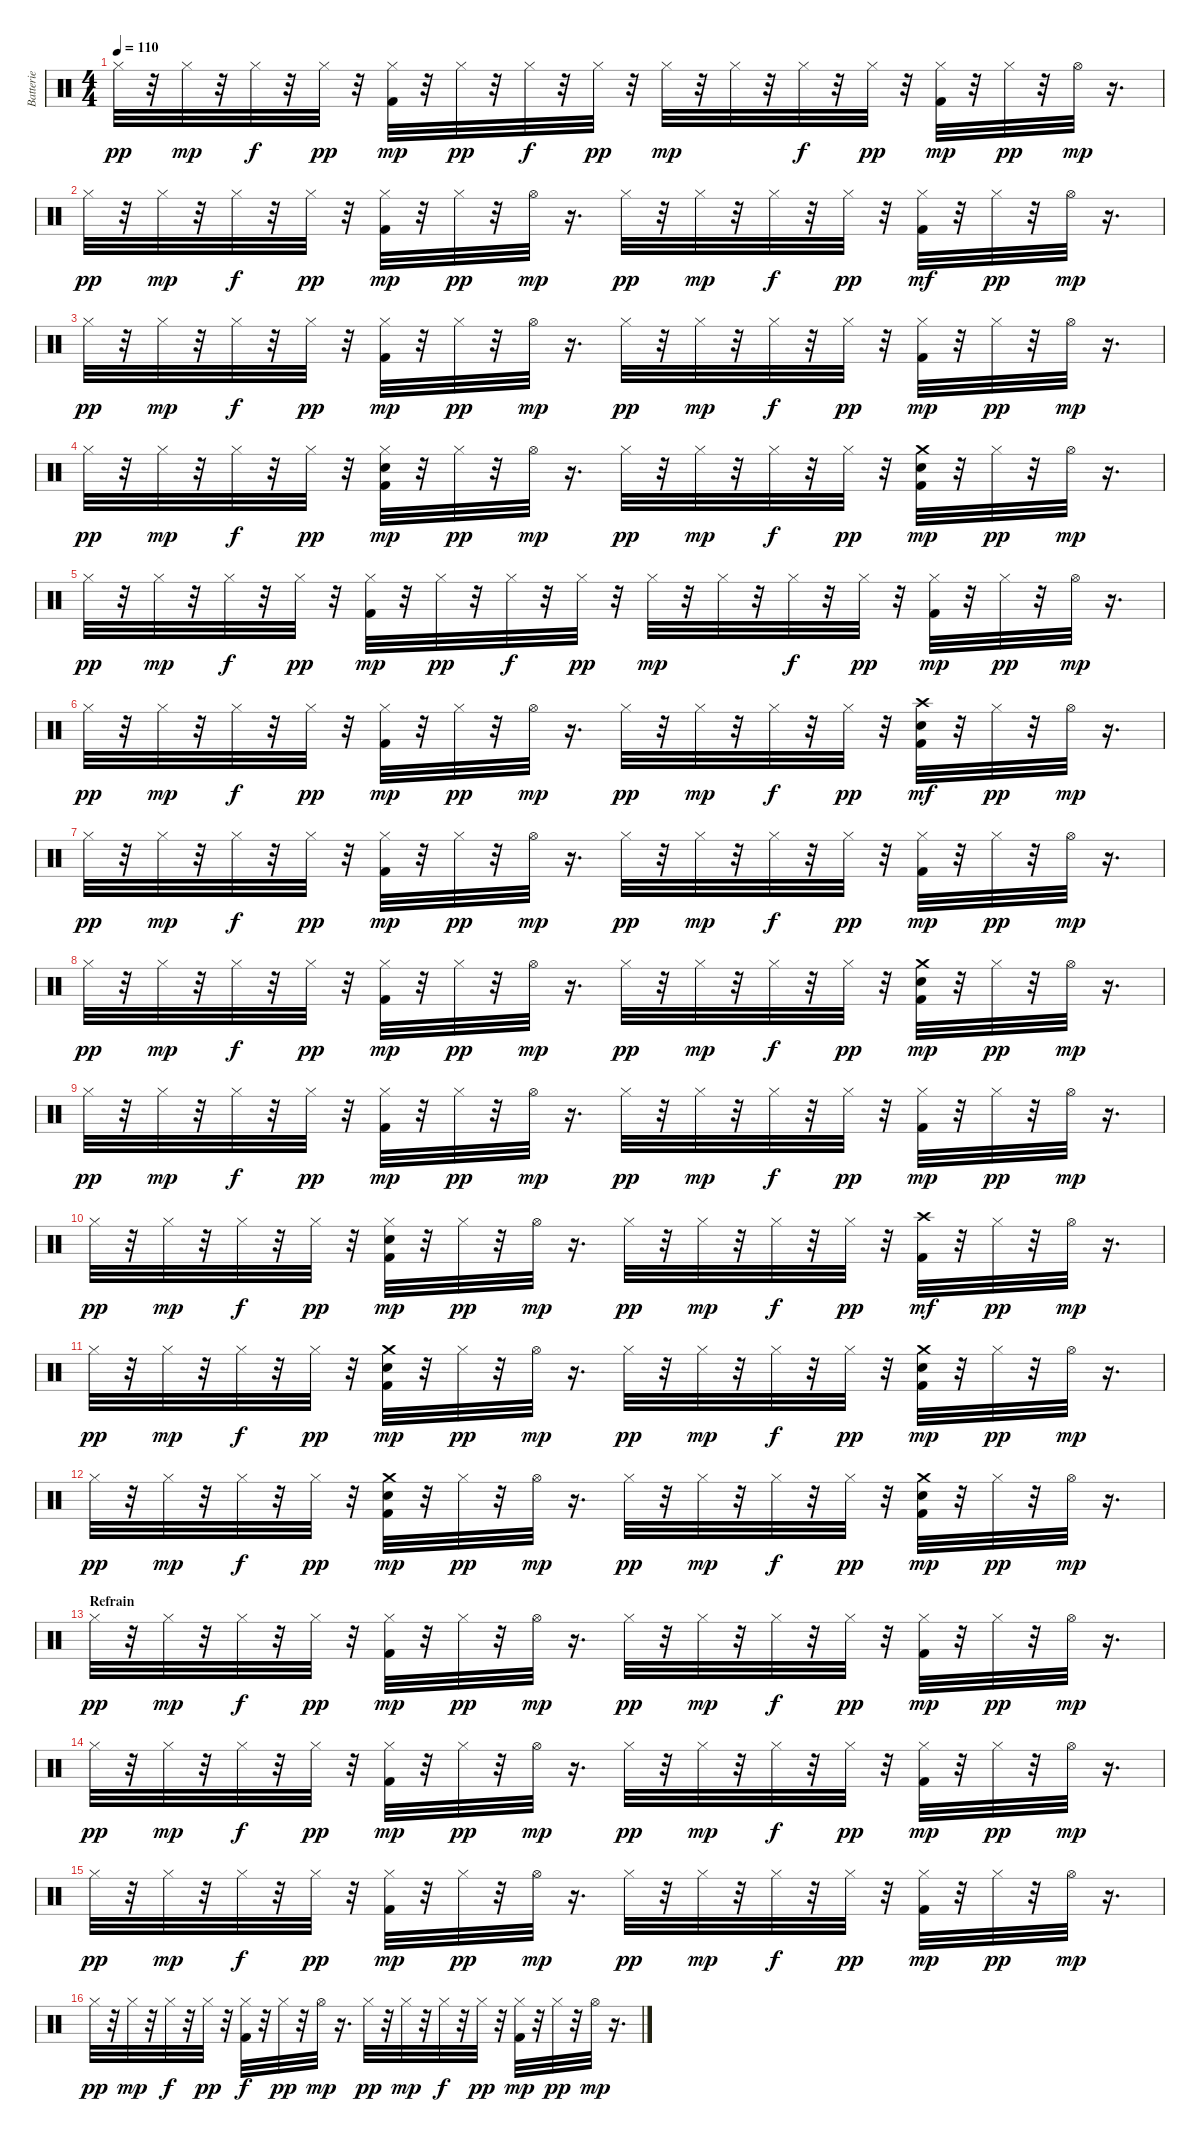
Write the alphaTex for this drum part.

\track ("Batterie" "Batterie") {instrument percussion}
\staff {score}
\articulation defaults
\ts (4 4)
\tempo 110
\clef neutral
\ks c "Hi-Hat (closed)".32{dy pp}
r.32 "Hi-Hat (closed)".32{dy mp} r.32 "Hi-Hat (closed)".32{dy f} r.32 "Hi-Hat (closed)".32{dy pp} r.32 ("Kick (hit) 2" "Hi-Hat (closed)").32{dy mp} r.32 "Hi-Hat (closed)".32{dy pp} r.32 "Hi-Hat (closed)".32{dy f} r.32 "Hi-Hat (closed)".32{dy pp} r.32 "Hi-Hat (closed)".32{dy mp} r.32 "Hi-Hat (closed)".32 r.32 "Hi-Hat (closed)".32{dy f} r.32 "Hi-Hat (closed)".32{dy pp} r.32 ("Kick (hit) 2" "Hi-Hat (closed)").32{dy mp} r.32 "Hi-Hat (closed)".32{dy pp} r.32 "Hi-Hat (open)".32{dy mp} r.16{d} |
"Hi-Hat (closed)".32{dy pp} r.32 "Hi-Hat (closed)".32{dy mp} r.32 "Hi-Hat (closed)".32{dy f} r.32 "Hi-Hat (closed)".32{dy pp} r.32 ("Kick (hit) 2" "Hi-Hat (closed)").32{dy mp} r.32 "Hi-Hat (closed)".32{dy pp} r.32 "Hi-Hat (open)".32{dy mp} r.16{d} "Hi-Hat (closed)".32{dy pp} r.32 "Hi-Hat (closed)".32{dy mp} r.32 "Hi-Hat (closed)".32{dy f} r.32 "Hi-Hat (closed)".32{dy pp} r.32 ("Kick (hit) 2" "Hi-Hat (closed)").32{dy mf} r.32 "Hi-Hat (closed)".32{dy pp} r.32 "Hi-Hat (open)".32{dy mp} r.16{d} |
"Hi-Hat (closed)".32{dy pp} r.32 "Hi-Hat (closed)".32{dy mp} r.32 "Hi-Hat (closed)".32{dy f} r.32 "Hi-Hat (closed)".32{dy pp} r.32 ("Kick (hit) 2" "Hi-Hat (closed)").32{dy mp} r.32 "Hi-Hat (closed)".32{dy pp} r.32 "Hi-Hat (open)".32{dy mp} r.16{d} "Hi-Hat (closed)".32{dy pp} r.32 "Hi-Hat (closed)".32{dy mp} r.32 "Hi-Hat (closed)".32{dy f} r.32 "Hi-Hat (closed)".32{dy pp} r.32 ("Kick (hit) 2" "Hi-Hat (closed)").32{dy mp} r.32 "Hi-Hat (closed)".32{dy pp} r.32 "Hi-Hat (open)".32{dy mp} r.16{d} |
"Hi-Hat (closed)".32{dy pp} r.32 "Hi-Hat (closed)".32{dy mp} r.32 "Hi-Hat (closed)".32{dy f} r.32 "Hi-Hat (closed)".32{dy pp} r.32 ("Kick (hit) 2" "Electric Snare (hit)" "Hi-Hat (closed)").32{dy mp} r.32 "Hi-Hat (closed)".32{dy pp} r.32 "Hi-Hat (open)".32{dy mp} r.16{d} "Hi-Hat (closed)".32{dy pp} r.32 "Hi-Hat (closed)".32{dy mp} r.32 "Hi-Hat (closed)".32{dy f} r.32 "Hi-Hat (closed)".32{dy pp} r.32 ("Kick (hit) 2" "Electric Snare (hit)" "Crash medium (hit)").32{dy mp} r.32 "Hi-Hat (closed)".32{dy pp} r.32 "Hi-Hat (open)".32{dy mp} r.16{d} |
"Hi-Hat (closed)".32{dy pp} r.32 "Hi-Hat (closed)".32{dy mp} r.32 "Hi-Hat (closed)".32{dy f} r.32 "Hi-Hat (closed)".32{dy pp} r.32 ("Kick (hit) 2" "Hi-Hat (closed)").32{dy mp} r.32 "Hi-Hat (closed)".32{dy pp} r.32 "Hi-Hat (closed)".32{dy f} r.32 "Hi-Hat (closed)".32{dy pp} r.32 "Hi-Hat (closed)".32{dy mp} r.32 "Hi-Hat (closed)".32 r.32 "Hi-Hat (closed)".32{dy f} r.32 "Hi-Hat (closed)".32{dy pp} r.32 ("Kick (hit) 2" "Hi-Hat (closed)").32{dy mp} r.32 "Hi-Hat (closed)".32{dy pp} r.32 "Hi-Hat (open)".32{dy mp} r.16{d} |
"Hi-Hat (closed)".32{dy pp} r.32 "Hi-Hat (closed)".32{dy mp} r.32 "Hi-Hat (closed)".32{dy f} r.32 "Hi-Hat (closed)".32{dy pp} r.32 ("Kick (hit) 2" "Hi-Hat (closed)").32{dy mp} r.32 "Hi-Hat (closed)".32{dy pp} r.32 "Hi-Hat (open)".32{dy mp} r.16{d} "Hi-Hat (closed)".32{dy pp} r.32 "Hi-Hat (closed)".32{dy mp} r.32 "Hi-Hat (closed)".32{dy f} r.32 "Hi-Hat (closed)".32{dy pp} r.32 ("Kick (hit) 2" "Electric Snare (hit)" "Crash high (hit)").32{dy mf} r.32 "Hi-Hat (closed)".32{dy pp} r.32 "Hi-Hat (open)".32{dy mp} r.16{d} |
"Hi-Hat (closed)".32{dy pp} r.32 "Hi-Hat (closed)".32{dy mp} r.32 "Hi-Hat (closed)".32{dy f} r.32 "Hi-Hat (closed)".32{dy pp} r.32 ("Kick (hit) 2" "Hi-Hat (closed)").32{dy mp} r.32 "Hi-Hat (closed)".32{dy pp} r.32 "Hi-Hat (open)".32{dy mp} r.16{d} "Hi-Hat (closed)".32{dy pp} r.32 "Hi-Hat (closed)".32{dy mp} r.32 "Hi-Hat (closed)".32{dy f} r.32 "Hi-Hat (closed)".32{dy pp} r.32 ("Kick (hit) 2" "Hi-Hat (closed)").32{dy mp} r.32 "Hi-Hat (closed)".32{dy pp} r.32 "Hi-Hat (open)".32{dy mp} r.16{d} |
"Hi-Hat (closed)".32{dy pp} r.32 "Hi-Hat (closed)".32{dy mp} r.32 "Hi-Hat (closed)".32{dy f} r.32 "Hi-Hat (closed)".32{dy pp} r.32 ("Kick (hit) 2" "Hi-Hat (closed)").32{dy mp} r.32 "Hi-Hat (closed)".32{dy pp} r.32 "Hi-Hat (open)".32{dy mp} r.16{d} "Hi-Hat (closed)".32{dy pp} r.32 "Hi-Hat (closed)".32{dy mp} r.32 "Hi-Hat (closed)".32{dy f} r.32 "Hi-Hat (closed)".32{dy pp} r.32 ("Kick (hit) 2" "Electric Snare (hit)" "Crash medium (hit)").32{dy mp} r.32 "Hi-Hat (closed)".32{dy pp} r.32 "Hi-Hat (open)".32{dy mp} r.16{d} |
"Hi-Hat (closed)".32{dy pp} r.32 "Hi-Hat (closed)".32{dy mp} r.32 "Hi-Hat (closed)".32{dy f} r.32 "Hi-Hat (closed)".32{dy pp} r.32 ("Kick (hit) 2" "Hi-Hat (closed)").32{dy mp} r.32 "Hi-Hat (closed)".32{dy pp} r.32 "Hi-Hat (open)".32{dy mp} r.16{d} "Hi-Hat (closed)".32{dy pp} r.32 "Hi-Hat (closed)".32{dy mp} r.32 "Hi-Hat (closed)".32{dy f} r.32 "Hi-Hat (closed)".32{dy pp} r.32 ("Kick (hit) 2" "Hi-Hat (closed)").32{dy mp} r.32 "Hi-Hat (closed)".32{dy pp} r.32 "Hi-Hat (open)".32{dy mp} r.16{d} |
"Hi-Hat (closed)".32{dy pp} r.32 "Hi-Hat (closed)".32{dy mp} r.32 "Hi-Hat (closed)".32{dy f} r.32 "Hi-Hat (closed)".32{dy pp} r.32 ("Kick (hit) 2" "Electric Snare (hit)" "Hi-Hat (closed)").32{dy mp} r.32 "Hi-Hat (closed)".32{dy pp} r.32 "Hi-Hat (open)".32{dy mp} r.16{d} "Hi-Hat (closed)".32{dy pp} r.32 "Hi-Hat (closed)".32{dy mp} r.32 "Hi-Hat (closed)".32{dy f} r.32 "Hi-Hat (closed)".32{dy pp} r.32 ("Kick (hit) 2" "Crash high (hit)").32{dy mf} r.32 "Hi-Hat (closed)".32{dy pp} r.32 "Hi-Hat (open)".32{dy mp} r.16{d} |
"Hi-Hat (closed)".32{dy pp} r.32 "Hi-Hat (closed)".32{dy mp} r.32 "Hi-Hat (closed)".32{dy f} r.32 "Hi-Hat (closed)".32{dy pp} r.32 ("Kick (hit) 2" "Electric Snare (hit)" "Crash medium (hit)").32{dy mp} r.32 "Hi-Hat (closed)".32{dy pp} r.32 "Hi-Hat (open)".32{dy mp} r.16{d} "Hi-Hat (closed)".32{dy pp} r.32 "Hi-Hat (closed)".32{dy mp} r.32 "Hi-Hat (closed)".32{dy f} r.32 "Hi-Hat (closed)".32{dy pp} r.32 ("Kick (hit) 2" "Electric Snare (hit)" "Crash medium (hit)").32{dy mp} r.32 "Hi-Hat (closed)".32{dy pp} r.32 "Hi-Hat (open)".32{dy mp} r.16{d} |
"Hi-Hat (closed)".32{dy pp} r.32 "Hi-Hat (closed)".32{dy mp} r.32 "Hi-Hat (closed)".32{dy f} r.32 "Hi-Hat (closed)".32{dy pp} r.32 ("Kick (hit) 2" "Electric Snare (hit)" "Crash medium (hit)").32{dy mp} r.32 "Hi-Hat (closed)".32{dy pp} r.32 "Hi-Hat (open)".32{dy mp} r.16{d} "Hi-Hat (closed)".32{dy pp} r.32 "Hi-Hat (closed)".32{dy mp} r.32 "Hi-Hat (closed)".32{dy f} r.32 "Hi-Hat (closed)".32{dy pp} r.32 ("Kick (hit) 2" "Electric Snare (hit)" "Crash medium (hit)").32{dy mp} r.32 "Hi-Hat (closed)".32{dy pp} r.32 "Hi-Hat (open)".32{dy mp} r.16{d} |
\section ("" "Refrain")
"Hi-Hat (closed)".32{dy pp} r.32 "Hi-Hat (closed)".32{dy mp} r.32 "Hi-Hat (closed)".32{dy f} r.32 "Hi-Hat (closed)".32{dy pp} r.32 ("Kick (hit) 2" "Hi-Hat (closed)").32{dy mp} r.32 "Hi-Hat (closed)".32{dy pp} r.32 "Hi-Hat (open)".32{dy mp} r.16{d} "Hi-Hat (closed)".32{dy pp} r.32 "Hi-Hat (closed)".32{dy mp} r.32 "Hi-Hat (closed)".32{dy f} r.32 "Hi-Hat (closed)".32{dy pp} r.32 ("Kick (hit) 2" "Hi-Hat (closed)").32{dy mp} r.32 "Hi-Hat (closed)".32{dy pp} r.32 "Hi-Hat (open)".32{dy mp} r.16{d} |
"Hi-Hat (closed)".32{dy pp} r.32 "Hi-Hat (closed)".32{dy mp} r.32 "Hi-Hat (closed)".32{dy f} r.32 "Hi-Hat (closed)".32{dy pp} r.32 ("Kick (hit) 2" "Hi-Hat (closed)").32{dy mp} r.32 "Hi-Hat (closed)".32{dy pp} r.32 "Hi-Hat (open)".32{dy mp} r.16{d} "Hi-Hat (closed)".32{dy pp} r.32 "Hi-Hat (closed)".32{dy mp} r.32 "Hi-Hat (closed)".32{dy f} r.32 "Hi-Hat (closed)".32{dy pp} r.32 ("Kick (hit) 2" "Hi-Hat (closed)").32{dy mp} r.32 "Hi-Hat (closed)".32{dy pp} r.32 "Hi-Hat (open)".32{dy mp} r.16{d} |
"Hi-Hat (closed)".32{dy pp} r.32 "Hi-Hat (closed)".32{dy mp} r.32 "Hi-Hat (closed)".32{dy f} r.32 "Hi-Hat (closed)".32{dy pp} r.32 ("Kick (hit) 2" "Hi-Hat (closed)").32{dy mp} r.32 "Hi-Hat (closed)".32{dy pp} r.32 "Hi-Hat (open)".32{dy mp} r.16{d} "Hi-Hat (closed)".32{dy pp} r.32 "Hi-Hat (closed)".32{dy mp} r.32 "Hi-Hat (closed)".32{dy f} r.32 "Hi-Hat (closed)".32{dy pp} r.32 ("Kick (hit) 2" "Hi-Hat (closed)").32{dy mp} r.32 "Hi-Hat (closed)".32{dy pp} r.32 "Hi-Hat (open)".32{dy mp} r.16{d} |
"Hi-Hat (closed)".32{dy pp} r.32 "Hi-Hat (closed)".32{dy mp} r.32 "Hi-Hat (closed)".32{dy f} r.32 "Hi-Hat (closed)".32{dy pp} r.32 ("Kick (hit) 2" "Hi-Hat (closed)").32{dy f} r.32 "Hi-Hat (closed)".32{dy pp} r.32 "Hi-Hat (open)".32{dy mp} r.16{d} "Hi-Hat (closed)".32{dy pp} r.32 "Hi-Hat (closed)".32{dy mp} r.32 "Hi-Hat (closed)".32{dy f} r.32 "Hi-Hat (closed)".32{dy pp} r.32 ("Kick (hit) 2" "Hi-Hat (closed)").32{dy mp} r.32 "Hi-Hat (closed)".32{dy pp} r.32 "Hi-Hat (open)".32{dy mp} r.16{d}
